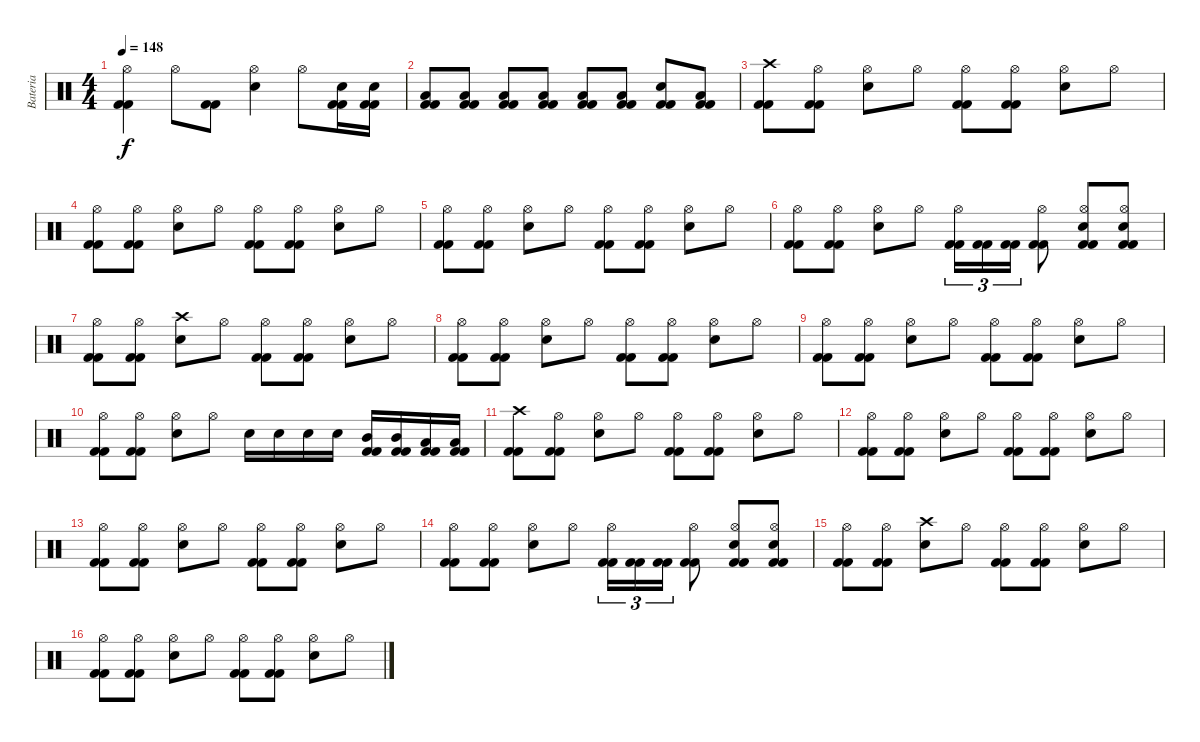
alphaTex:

\track ("Bateria" "Bateria") {instrument percussion}
\staff {score}
\articulation defaults
\ts (4 4)
\tempo 148
\clef neutral
\ks c
("Kick (hit) 2" "Kick (hit) 2" "Hi-Hat (open)").4{dy f} "Hi-Hat (open)".8 ("Kick (hit) 2" "Kick (hit) 2").8 ("Snare (hit) 2" "Hi-Hat (open)").4 "Hi-Hat (open)".8 ("Kick (hit) 2" "Kick (hit) 2" "Snare (hit) 2").16 ("Kick (hit) 2" "Kick (hit) 2" "Snare (hit) 2").16 |
("Kick (hit) 2" "Kick (hit) 2" "Low Tom (hit)").8 ("Kick (hit) 2" "Kick (hit) 2" "Low Tom (hit)").8 ("Kick (hit) 2" "Kick (hit) 2" "Low Tom (hit)").8 ("Kick (hit) 2" "Kick (hit) 2" "Low Tom (hit)").8 ("Kick (hit) 2" "Kick (hit) 2" "Low Tom (hit)").8 ("Kick (hit) 2" "Kick (hit) 2" "Low Tom (hit)").8 ("Kick (hit) 2" "Kick (hit) 2" "Snare (hit) 2").8 ("Kick (hit) 2" "Kick (hit) 2" "Low Tom (hit)").8 |
("Kick (hit) 2" "Kick (hit) 2" "Crash high (hit)").8 ("Kick (hit) 2" "Kick (hit) 2" "Hi-Hat (open)").8 ("Snare (hit) 2" "Hi-Hat (open)").8 "Hi-Hat (open)".8 ("Kick (hit) 2" "Kick (hit) 2" "Hi-Hat (open)").8 ("Kick (hit) 2" "Kick (hit) 2" "Hi-Hat (open)").8 ("Snare (hit) 2" "Hi-Hat (open)").8 "Hi-Hat (open)".8 |
("Kick (hit) 2" "Kick (hit) 2" "Hi-Hat (open)").8 ("Kick (hit) 2" "Kick (hit) 2" "Hi-Hat (open)").8 ("Snare (hit) 2" "Hi-Hat (open)").8 "Hi-Hat (open)".8 ("Kick (hit) 2" "Kick (hit) 2" "Hi-Hat (open)").8 ("Kick (hit) 2" "Kick (hit) 2" "Hi-Hat (open)").8 ("Snare (hit) 2" "Hi-Hat (open)").8 "Hi-Hat (open)".8 |
("Kick (hit) 2" "Kick (hit) 2" "Hi-Hat (open)").8 ("Kick (hit) 2" "Kick (hit) 2" "Hi-Hat (open)").8 ("Snare (hit) 2" "Hi-Hat (open)").8 "Hi-Hat (open)".8 ("Kick (hit) 2" "Kick (hit) 2" "Hi-Hat (open)").8 ("Kick (hit) 2" "Kick (hit) 2" "Hi-Hat (open)").8 ("Snare (hit) 2" "Hi-Hat (open)").8 "Hi-Hat (open)".8 |
("Kick (hit) 2" "Kick (hit) 2" "Hi-Hat (open)").8 ("Kick (hit) 2" "Kick (hit) 2" "Hi-Hat (open)").8 ("Snare (hit) 2" "Hi-Hat (open)").8 "Hi-Hat (open)".8 ("Kick (hit) 2" "Kick (hit) 2" "Hi-Hat (open)").16{tu (3 2)} ("Kick (hit) 2" "Kick (hit) 2").16{tu (3 2)} ("Kick (hit) 2" "Kick (hit) 2").16{tu (3 2)} ("Kick (hit) 2" "Kick (hit) 2" "Hi-Hat (open)").8 ("Kick (hit) 2" "Kick (hit) 2" "Snare (hit) 2" "Hi-Hat (open)").8 ("Kick (hit) 2" "Kick (hit) 2" "Snare (hit) 2" "Hi-Hat (open)").8 |
("Kick (hit) 2" "Kick (hit) 2" "Hi-Hat (open)").8 ("Kick (hit) 2" "Kick (hit) 2" "Hi-Hat (open)").8 ("Snare (hit) 2" "Crash high (hit)").8 "Hi-Hat (open)".8 ("Kick (hit) 2" "Kick (hit) 2" "Hi-Hat (open)").8 ("Kick (hit) 2" "Kick (hit) 2" "Hi-Hat (open)").8 ("Snare (hit) 2" "Hi-Hat (open)").8 "Hi-Hat (open)".8 |
("Kick (hit) 2" "Kick (hit) 2" "Hi-Hat (open)").8 ("Kick (hit) 2" "Kick (hit) 2" "Hi-Hat (open)").8 ("Snare (hit) 2" "Hi-Hat (open)").8 "Hi-Hat (open)".8 ("Kick (hit) 2" "Kick (hit) 2" "Hi-Hat (open)").8 ("Kick (hit) 2" "Kick (hit) 2" "Hi-Hat (open)").8 ("Snare (hit) 2" "Hi-Hat (open)").8 "Hi-Hat (open)".8 |
("Kick (hit) 2" "Kick (hit) 2" "Hi-Hat (open)").8 ("Kick (hit) 2" "Kick (hit) 2" "Hi-Hat (open)").8 ("Snare (hit) 2" "Hi-Hat (open)").8 "Hi-Hat (open)".8 ("Kick (hit) 2" "Kick (hit) 2" "Hi-Hat (open)").8 ("Kick (hit) 2" "Kick (hit) 2" "Hi-Hat (open)").8 ("Snare (hit) 2" "Hi-Hat (open)").8 "Hi-Hat (open)".8 |
("Kick (hit) 2" "Kick (hit) 2" "Hi-Hat (open)").8 ("Kick (hit) 2" "Kick (hit) 2" "Hi-Hat (open)").8 ("Snare (hit) 2" "Hi-Hat (open)").8 "Hi-Hat (open)".8 "Snare (hit) 2".16 "Snare (hit) 2".16 "Snare (hit) 2".16 "Snare (hit) 2".16 ("Kick (hit) 2" "Kick (hit) 2" "Mid Tom (hit)").16 ("Kick (hit) 2" "Kick (hit) 2" "Mid Tom (hit)").16 ("Kick (hit) 2" "Kick (hit) 2" "Low Tom (hit)").16 ("Kick (hit) 2" "Kick (hit) 2" "Low Tom (hit)").16 |
("Kick (hit) 2" "Kick (hit) 2" "Crash high (hit)").8 ("Kick (hit) 2" "Kick (hit) 2" "Hi-Hat (open)").8 ("Snare (hit) 2" "Hi-Hat (open)").8 "Hi-Hat (open)".8 ("Kick (hit) 2" "Kick (hit) 2" "Hi-Hat (open)").8 ("Kick (hit) 2" "Kick (hit) 2" "Hi-Hat (open)").8 ("Snare (hit) 2" "Hi-Hat (open)").8 "Hi-Hat (open)".8 |
("Kick (hit) 2" "Kick (hit) 2" "Hi-Hat (open)").8 ("Kick (hit) 2" "Kick (hit) 2" "Hi-Hat (open)").8 ("Snare (hit) 2" "Hi-Hat (open)").8 "Hi-Hat (open)".8 ("Kick (hit) 2" "Kick (hit) 2" "Hi-Hat (open)").8 ("Kick (hit) 2" "Kick (hit) 2" "Hi-Hat (open)").8 ("Snare (hit) 2" "Hi-Hat (open)").8 "Hi-Hat (open)".8 |
("Kick (hit) 2" "Kick (hit) 2" "Hi-Hat (open)").8 ("Kick (hit) 2" "Kick (hit) 2" "Hi-Hat (open)").8 ("Snare (hit) 2" "Hi-Hat (open)").8 "Hi-Hat (open)".8 ("Kick (hit) 2" "Kick (hit) 2" "Hi-Hat (open)").8 ("Kick (hit) 2" "Kick (hit) 2" "Hi-Hat (open)").8 ("Snare (hit) 2" "Hi-Hat (open)").8 "Hi-Hat (open)".8 |
("Kick (hit) 2" "Kick (hit) 2" "Hi-Hat (open)").8 ("Kick (hit) 2" "Kick (hit) 2" "Hi-Hat (open)").8 ("Snare (hit) 2" "Hi-Hat (open)").8 "Hi-Hat (open)".8 ("Kick (hit) 2" "Kick (hit) 2" "Hi-Hat (open)").16{tu (3 2)} ("Kick (hit) 2" "Kick (hit) 2").16{tu (3 2)} ("Kick (hit) 2" "Kick (hit) 2").16{tu (3 2)} ("Kick (hit) 2" "Kick (hit) 2" "Hi-Hat (open)").8 ("Kick (hit) 2" "Kick (hit) 2" "Snare (hit) 2" "Hi-Hat (open)").8 ("Kick (hit) 2" "Kick (hit) 2" "Snare (hit) 2" "Hi-Hat (open)").8 |
("Kick (hit) 2" "Kick (hit) 2" "Hi-Hat (open)").8 ("Kick (hit) 2" "Kick (hit) 2" "Hi-Hat (open)").8 ("Snare (hit) 2" "Crash high (hit)").8 "Hi-Hat (open)".8 ("Kick (hit) 2" "Kick (hit) 2" "Hi-Hat (open)").8 ("Kick (hit) 2" "Kick (hit) 2" "Hi-Hat (open)").8 ("Snare (hit) 2" "Hi-Hat (open)").8 "Hi-Hat (open)".8 |
("Kick (hit) 2" "Kick (hit) 2" "Hi-Hat (open)").8 ("Kick (hit) 2" "Kick (hit) 2" "Hi-Hat (open)").8 ("Snare (hit) 2" "Hi-Hat (open)").8 "Hi-Hat (open)".8 ("Kick (hit) 2" "Kick (hit) 2" "Hi-Hat (open)").8 ("Kick (hit) 2" "Kick (hit) 2" "Hi-Hat (open)").8 ("Snare (hit) 2" "Hi-Hat (open)").8 "Hi-Hat (open)".8
